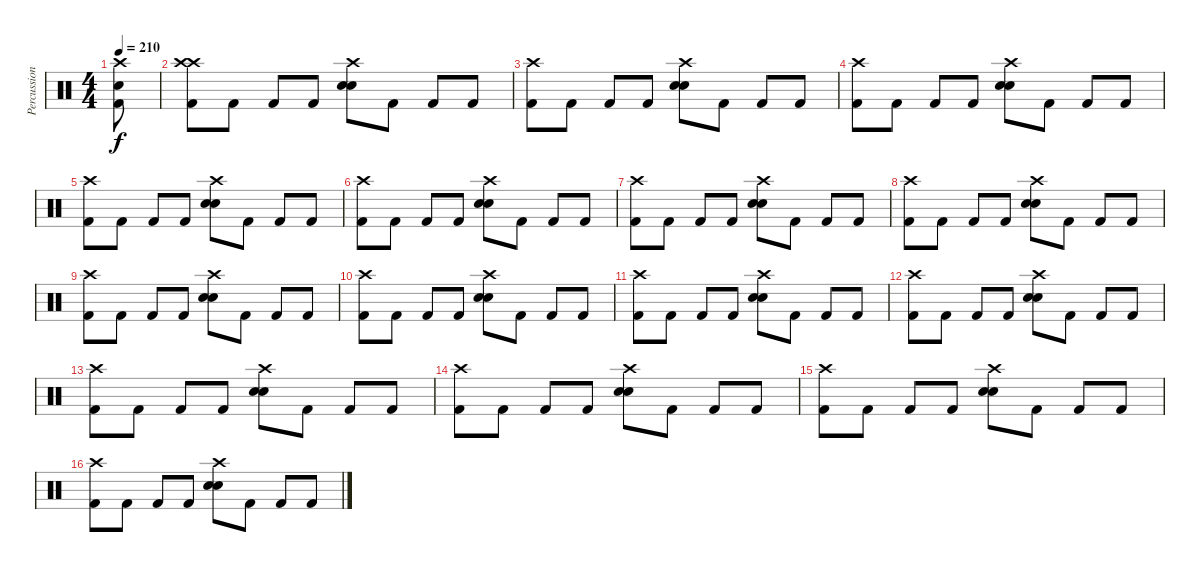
\track ("Percussion" "Percussion") {instrument percussion}
\staff {score}
\articulation defaults
\ts (4 4)
\tempo 210
\clef neutral
\ks c
("Crash high (hit)" "Kick (hit) 2" "Snare (hit) 2").8{dy f} |
("Kick (hit) 2" "Crash high (hit)" "Crash high (hit)").8 "Kick (hit) 2".8 "Kick (hit) 2".8 "Kick (hit) 2".8 ("Snare (hit) 2" "Electric Snare (hit)" "Crash high (hit)").8 "Kick (hit) 2".8 "Kick (hit) 2".8 "Kick (hit) 2".8 |
("Kick (hit) 2" "Crash high (hit)").8 "Kick (hit) 2".8 "Kick (hit) 2".8 "Kick (hit) 2".8 ("Snare (hit) 2" "Electric Snare (hit)" "Crash high (hit)").8 "Kick (hit) 2".8 "Kick (hit) 2".8 "Kick (hit) 2".8 |
("Kick (hit) 2" "Crash high (hit)").8 "Kick (hit) 2".8 "Kick (hit) 2".8 "Kick (hit) 2".8 ("Snare (hit) 2" "Electric Snare (hit)" "Crash high (hit)").8 "Kick (hit) 2".8 "Kick (hit) 2".8 "Kick (hit) 2".8 |
("Kick (hit) 2" "Crash high (hit)").8 "Kick (hit) 2".8 "Kick (hit) 2".8 "Kick (hit) 2".8 ("Snare (hit) 2" "Electric Snare (hit)" "Crash high (hit)").8 "Kick (hit) 2".8 "Kick (hit) 2".8 "Kick (hit) 2".8 |
("Kick (hit) 2" "Crash high (hit)").8 "Kick (hit) 2".8 "Kick (hit) 2".8 "Kick (hit) 2".8 ("Snare (hit) 2" "Electric Snare (hit)" "Crash high (hit)").8 "Kick (hit) 2".8 "Kick (hit) 2".8 "Kick (hit) 2".8 |
("Kick (hit) 2" "Crash high (hit)").8 "Kick (hit) 2".8 "Kick (hit) 2".8 "Kick (hit) 2".8 ("Snare (hit) 2" "Electric Snare (hit)" "Crash high (hit)").8 "Kick (hit) 2".8 "Kick (hit) 2".8 "Kick (hit) 2".8 |
("Kick (hit) 2" "Crash high (hit)").8 "Kick (hit) 2".8 "Kick (hit) 2".8 "Kick (hit) 2".8 ("Snare (hit) 2" "Electric Snare (hit)" "Crash high (hit)").8 "Kick (hit) 2".8 "Kick (hit) 2".8 "Kick (hit) 2".8 |
("Kick (hit) 2" "Crash high (hit)").8 "Kick (hit) 2".8 "Kick (hit) 2".8 "Kick (hit) 2".8 ("Snare (hit) 2" "Electric Snare (hit)" "Crash high (hit)").8 "Kick (hit) 2".8 "Kick (hit) 2".8 "Kick (hit) 2".8 |
("Kick (hit) 2" "Crash high (hit)").8 "Kick (hit) 2".8 "Kick (hit) 2".8 "Kick (hit) 2".8 ("Snare (hit) 2" "Electric Snare (hit)" "Crash high (hit)").8 "Kick (hit) 2".8 "Kick (hit) 2".8 "Kick (hit) 2".8 |
("Kick (hit) 2" "Crash high (hit)").8 "Kick (hit) 2".8 "Kick (hit) 2".8 "Kick (hit) 2".8 ("Snare (hit) 2" "Electric Snare (hit)" "Crash high (hit)").8 "Kick (hit) 2".8 "Kick (hit) 2".8 "Kick (hit) 2".8 |
("Kick (hit) 2" "Crash high (hit)").8 "Kick (hit) 2".8 "Kick (hit) 2".8 "Kick (hit) 2".8 ("Snare (hit) 2" "Electric Snare (hit)" "Crash high (hit)").8 "Kick (hit) 2".8 "Kick (hit) 2".8 "Kick (hit) 2".8 |
("Kick (hit) 2" "Crash high (hit)").8 "Kick (hit) 2".8 "Kick (hit) 2".8 "Kick (hit) 2".8 ("Snare (hit) 2" "Electric Snare (hit)" "Crash high (hit)").8 "Kick (hit) 2".8 "Kick (hit) 2".8 "Kick (hit) 2".8 |
("Kick (hit) 2" "Crash high (hit)").8 "Kick (hit) 2".8 "Kick (hit) 2".8 "Kick (hit) 2".8 ("Snare (hit) 2" "Electric Snare (hit)" "Crash high (hit)").8 "Kick (hit) 2".8 "Kick (hit) 2".8 "Kick (hit) 2".8 |
("Kick (hit) 2" "Crash high (hit)").8 "Kick (hit) 2".8 "Kick (hit) 2".8 "Kick (hit) 2".8 ("Snare (hit) 2" "Electric Snare (hit)" "Crash high (hit)").8 "Kick (hit) 2".8 "Kick (hit) 2".8 "Kick (hit) 2".8 |
("Kick (hit) 2" "Crash high (hit)").8 "Kick (hit) 2".8 "Kick (hit) 2".8 "Kick (hit) 2".8 ("Snare (hit) 2" "Electric Snare (hit)" "Crash high (hit)").8 "Kick (hit) 2".8 "Kick (hit) 2".8 "Kick (hit) 2".8
